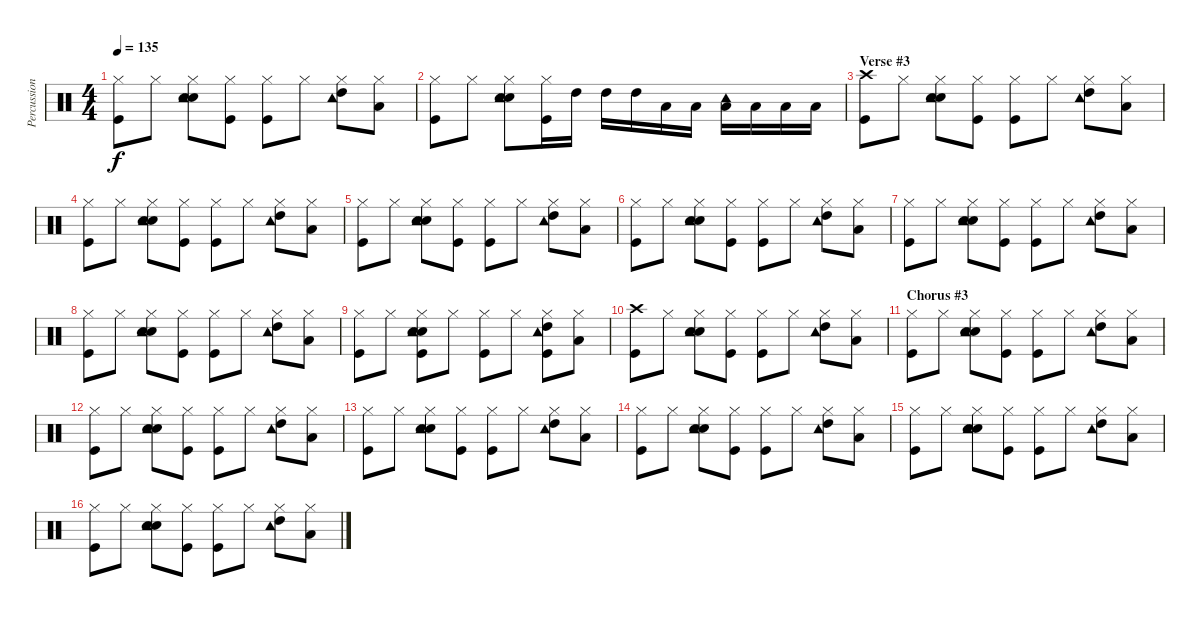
\track ("Percussion" "Percussion") {instrument percussion}
\staff {score}
\articulation defaults
\ts (4 4)
\tempo 135
\clef neutral
\ks c
("Hi-Hat (closed)" "Kick (hit)").8{dy f} "Hi-Hat (closed)".8 ("Hi-Hat (closed)" "Electric Snare (hit)" "Tambourine (hit)" "Hand Clap (hit)").8 ("Hi-Hat (closed)" "Kick (hit)").8 ("Hi-Hat (closed)" "Kick (hit)").8 "Hi-Hat (closed)".8 ("Hi-Hat (closed)" "High Tom (hit)" "Tambourine (hit)").8 ("Hi-Hat (closed)" "Low Tom (hit)").8 |
("Hi-Hat (closed)" "Kick (hit)").8 "Hi-Hat (closed)".8 ("Hi-Hat (closed)" "Electric Snare (hit)" "Tambourine (hit)" "Hand Clap (hit)").8 ("Hi-Hat (closed)" "Kick (hit)").16 "High Tom (hit)".16 "High Tom (hit)".16 "High Tom (hit)".16 "Low Tom (hit)".16 "Low Tom (hit)".16 ("Low Tom (hit)" "Tambourine (hit)").16 "Low Tom (hit)".16 "Low Floor Tom (hit)".16 "Low Floor Tom (hit)".16 |
\section ("" "Verse #3")
("Crash high (hit)" "Kick (hit)").8 "Hi-Hat (closed)".8 ("Hi-Hat (closed)" "Electric Snare (hit)" "Tambourine (hit)" "Hand Clap (hit)").8 ("Hi-Hat (closed)" "Kick (hit)").8 ("Hi-Hat (closed)" "Kick (hit)").8 "Hi-Hat (closed)".8 ("Hi-Hat (closed)" "High Tom (hit)" "Tambourine (hit)").8 ("Hi-Hat (closed)" "Low Tom (hit)").8 |
("Hi-Hat (closed)" "Kick (hit)").8 "Hi-Hat (closed)".8 ("Hi-Hat (closed)" "Electric Snare (hit)" "Tambourine (hit)" "Hand Clap (hit)").8 ("Hi-Hat (closed)" "Kick (hit)").8 ("Hi-Hat (closed)" "Kick (hit)").8 "Hi-Hat (closed)".8 ("Hi-Hat (closed)" "High Tom (hit)" "Tambourine (hit)").8 ("Hi-Hat (closed)" "Low Tom (hit)").8 |
("Hi-Hat (closed)" "Kick (hit)").8 "Hi-Hat (closed)".8 ("Hi-Hat (closed)" "Electric Snare (hit)" "Tambourine (hit)" "Hand Clap (hit)").8 ("Hi-Hat (closed)" "Kick (hit)").8 ("Hi-Hat (closed)" "Kick (hit)").8 "Hi-Hat (closed)".8 ("Hi-Hat (closed)" "High Tom (hit)" "Tambourine (hit)").8 ("Hi-Hat (closed)" "Low Tom (hit)").8 |
("Hi-Hat (closed)" "Kick (hit)").8 "Hi-Hat (closed)".8 ("Hi-Hat (closed)" "Electric Snare (hit)" "Tambourine (hit)" "Hand Clap (hit)").8 ("Hi-Hat (closed)" "Kick (hit)").8 ("Hi-Hat (closed)" "Kick (hit)").8 "Hi-Hat (closed)".8 ("Hi-Hat (closed)" "High Tom (hit)" "Tambourine (hit)").8 ("Hi-Hat (closed)" "Low Tom (hit)").8 |
("Hi-Hat (closed)" "Kick (hit)").8 "Hi-Hat (closed)".8 ("Hi-Hat (closed)" "Electric Snare (hit)" "Tambourine (hit)" "Hand Clap (hit)").8 ("Hi-Hat (closed)" "Kick (hit)").8 ("Hi-Hat (closed)" "Kick (hit)").8 "Hi-Hat (closed)".8 ("Hi-Hat (closed)" "High Tom (hit)" "Tambourine (hit)").8 ("Hi-Hat (closed)" "Low Tom (hit)").8 |
("Hi-Hat (closed)" "Kick (hit)").8 "Hi-Hat (closed)".8 ("Hi-Hat (closed)" "Electric Snare (hit)" "Tambourine (hit)" "Hand Clap (hit)").8 ("Hi-Hat (closed)" "Kick (hit)").8 ("Hi-Hat (closed)" "Kick (hit)").8 "Hi-Hat (closed)".8 ("Hi-Hat (closed)" "High Tom (hit)" "Tambourine (hit)").8 ("Hi-Hat (closed)" "Low Tom (hit)").8 |
("Hi-Hat (closed)" "Kick (hit)").8 "Hi-Hat (closed)".8 ("Hi-Hat (closed)" "Electric Snare (hit)" "Kick (hit)" "Tambourine (hit)" "Hand Clap (hit)").8 "Hi-Hat (closed)".8 ("Hi-Hat (closed)" "Kick (hit)").8 "Hi-Hat (closed)".8 ("Hi-Hat (closed)" "High Tom (hit)" "Kick (hit)" "Tambourine (hit)").8 ("Hi-Hat (closed)" "Low Tom (hit)").8 |
("Crash high (hit)" "Kick (hit)").8 "Hi-Hat (closed)".8 ("Hi-Hat (closed)" "Electric Snare (hit)" "Tambourine (hit)" "Hand Clap (hit)").8 ("Hi-Hat (closed)" "Kick (hit)").8 ("Hi-Hat (closed)" "Kick (hit)").8 "Hi-Hat (closed)".8 ("Hi-Hat (closed)" "High Tom (hit)" "Tambourine (hit)").8 ("Hi-Hat (closed)" "Low Tom (hit)").8 |
\section ("" "Chorus #3")
("Hi-Hat (closed)" "Kick (hit)").8 "Hi-Hat (closed)".8 ("Hi-Hat (closed)" "Electric Snare (hit)" "Tambourine (hit)" "Hand Clap (hit)").8 ("Hi-Hat (closed)" "Kick (hit)").8 ("Hi-Hat (closed)" "Kick (hit)").8 "Hi-Hat (closed)".8 ("Hi-Hat (closed)" "High Tom (hit)" "Tambourine (hit)").8 ("Hi-Hat (closed)" "Low Tom (hit)").8 |
("Hi-Hat (closed)" "Kick (hit)").8 "Hi-Hat (closed)".8 ("Hi-Hat (closed)" "Electric Snare (hit)" "Tambourine (hit)" "Hand Clap (hit)").8 ("Hi-Hat (closed)" "Kick (hit)").8 ("Hi-Hat (closed)" "Kick (hit)").8 "Hi-Hat (closed)".8 ("Hi-Hat (closed)" "High Tom (hit)" "Tambourine (hit)").8 ("Hi-Hat (closed)" "Low Tom (hit)").8 |
("Hi-Hat (closed)" "Kick (hit)").8 "Hi-Hat (closed)".8 ("Hi-Hat (closed)" "Electric Snare (hit)" "Tambourine (hit)" "Hand Clap (hit)").8 ("Hi-Hat (closed)" "Kick (hit)").8 ("Hi-Hat (closed)" "Kick (hit)").8 "Hi-Hat (closed)".8 ("Hi-Hat (closed)" "High Tom (hit)" "Tambourine (hit)").8 ("Hi-Hat (closed)" "Low Tom (hit)").8 |
("Hi-Hat (closed)" "Kick (hit)").8 "Hi-Hat (closed)".8 ("Hi-Hat (closed)" "Electric Snare (hit)" "Tambourine (hit)" "Hand Clap (hit)").8 ("Hi-Hat (closed)" "Kick (hit)").8 ("Hi-Hat (closed)" "Kick (hit)").8 "Hi-Hat (closed)".8 ("Hi-Hat (closed)" "High Tom (hit)" "Tambourine (hit)").8 ("Hi-Hat (closed)" "Low Tom (hit)").8 |
("Hi-Hat (closed)" "Kick (hit)").8 "Hi-Hat (closed)".8 ("Hi-Hat (closed)" "Electric Snare (hit)" "Tambourine (hit)" "Hand Clap (hit)").8 ("Hi-Hat (closed)" "Kick (hit)").8 ("Hi-Hat (closed)" "Kick (hit)").8 "Hi-Hat (closed)".8 ("Hi-Hat (closed)" "High Tom (hit)" "Tambourine (hit)").8 ("Hi-Hat (closed)" "Low Tom (hit)").8 |
("Hi-Hat (closed)" "Kick (hit)").8 "Hi-Hat (closed)".8 ("Hi-Hat (closed)" "Electric Snare (hit)" "Tambourine (hit)" "Hand Clap (hit)").8 ("Hi-Hat (closed)" "Kick (hit)").8 ("Hi-Hat (closed)" "Kick (hit)").8 "Hi-Hat (closed)".8 ("Hi-Hat (closed)" "High Tom (hit)" "Tambourine (hit)").8 ("Hi-Hat (closed)" "Low Tom (hit)").8
